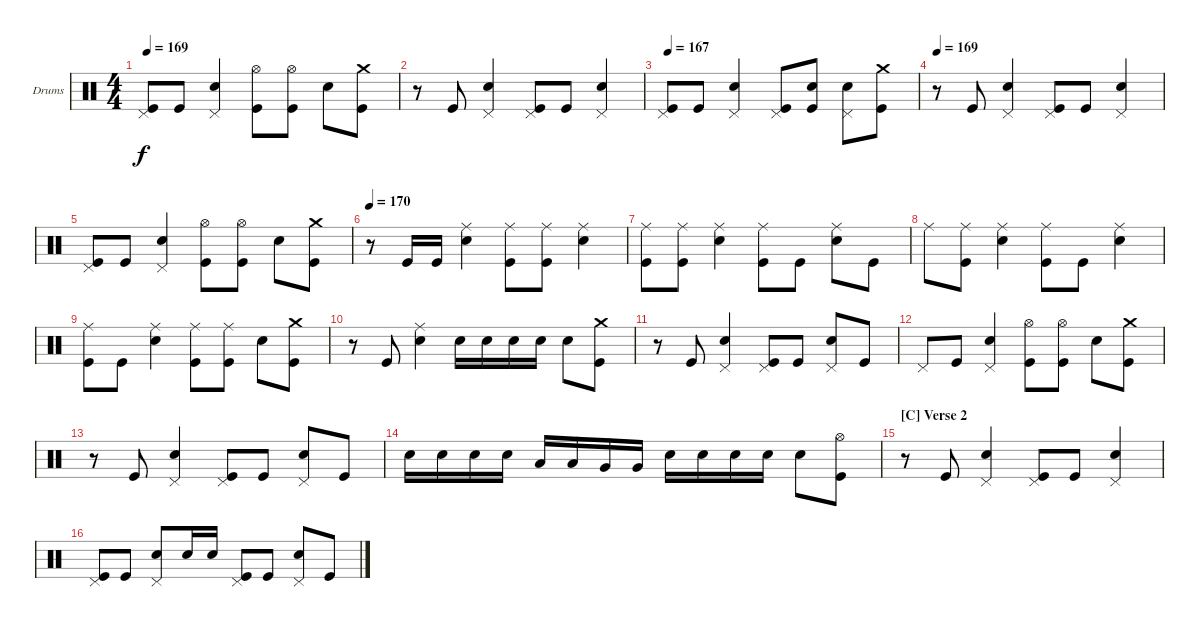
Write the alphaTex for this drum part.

\bracketExtendMode groupsimilarinstruments
\firstSystemTrackNameOrientation horizontal
\otherSystemsTrackNameOrientation horizontal
\track ("Vinny Appice" "Drums") {instrument percussion}
\staff {score}
\articulation defaults
\ts (4 4)
\tempo 169
\clef neutral
\ks c
("Pedal Hi-Hat (hit)" "Kick (hit)").8{dy f} "Kick (hit)".8 ("Pedal Hi-Hat (hit)" "Snare (hit) 2").4 ("Hi-Hat (open)" "Kick (hit)").8 ("Hi-Hat (open)" "Kick (hit)").8 "Snare (hit) 2".8 ("Crash medium (hit)" "Kick (hit)").8 |
r.8 "Kick (hit)".8 ("Pedal Hi-Hat (hit)" "Snare (hit) 2").4 ("Pedal Hi-Hat (hit)" "Kick (hit)").8 "Kick (hit)".8 ("Pedal Hi-Hat (hit)" "Snare (hit) 2").4 |
\tempo (167 0.00625)
("Pedal Hi-Hat (hit)" "Kick (hit)").8 "Kick (hit)".8 ("Pedal Hi-Hat (hit)" "Snare (hit) 2").4 ("Pedal Hi-Hat (hit)" "Kick (hit)").8 ("Snare (hit) 2" "Kick (hit)").8 ("Pedal Hi-Hat (hit)" "Snare (hit) 2").8 ("Crash medium (hit)" "Kick (hit)").8 |
\tempo (169 0.00625)
r.8 "Kick (hit)".8 ("Pedal Hi-Hat (hit)" "Snare (hit) 2").4 ("Pedal Hi-Hat (hit)" "Kick (hit)").8 "Kick (hit)".8 ("Pedal Hi-Hat (hit)" "Snare (hit) 2").4 |
("Pedal Hi-Hat (hit)" "Kick (hit)").8 "Kick (hit)".8 ("Pedal Hi-Hat (hit)" "Snare (hit) 2").4 ("Hi-Hat (open)" "Kick (hit)").8 ("Hi-Hat (open)" "Kick (hit)").8 "Snare (hit) 2".8 ("Crash medium (hit)" "Kick (hit)").8 |
\tempo 170
r.8 "Kick (hit)".16 "Kick (hit)".16 ("Ride (middle)" "Snare (hit) 2").4 ("Ride (middle)" "Kick (hit)").8 ("Ride (middle)" "Kick (hit)").8 ("Ride (middle)" "Snare (hit) 2").4 |
("Ride (middle)" "Kick (hit)").8 ("Ride (middle)" "Kick (hit)").8 ("Ride (middle)" "Snare (hit) 2").4 ("Ride (middle)" "Kick (hit)").8 "Kick (hit)".8 ("Ride (middle)" "Snare (hit) 2").8 "Kick (hit)".8 |
"Ride (middle)".8 ("Ride (middle)" "Kick (hit)").8 ("Ride (middle)" "Snare (hit) 2").4 ("Ride (middle)" "Kick (hit)").8 "Kick (hit)".8 ("Ride (middle)" "Snare (hit) 2").4 |
("Ride (middle)" "Kick (hit)").8 "Kick (hit)".8 ("Ride (middle)" "Snare (hit) 2").4 ("Ride (middle)" "Kick (hit)").8 ("Ride (middle)" "Kick (hit)").8 "Snare (hit) 2".8 ("Crash medium (hit)" "Kick (hit)").8 |
r.8 "Kick (hit)".8 ("Ride (middle)" "Snare (hit) 2").4 "Snare (hit) 2".16 "Snare (hit) 2".16 "Snare (hit) 2".16 "Snare (hit) 2".16 "Snare (hit) 2".8 ("Crash medium (hit)" "Kick (hit)").8 |
r.8 "Kick (hit)".8 ("Pedal Hi-Hat (hit)" "Snare (hit) 2").4 ("Pedal Hi-Hat (hit)" "Kick (hit)").8 "Kick (hit)".8 ("Pedal Hi-Hat (hit)" "Snare (hit) 2").8 "Kick (hit)".8 |
"Pedal Hi-Hat (hit)".8 "Kick (hit)".8 ("Pedal Hi-Hat (hit)" "Snare (hit) 2").4 ("Hi-Hat (open)" "Kick (hit)").8 ("Hi-Hat (open)" "Kick (hit)").8 "Snare (hit) 2".8 ("Crash medium (hit)" "Kick (hit)").8 |
r.8 "Kick (hit)".8 ("Pedal Hi-Hat (hit)" "Snare (hit) 2").4 ("Pedal Hi-Hat (hit)" "Kick (hit)").8 "Kick (hit)".8 ("Pedal Hi-Hat (hit)" "Snare (hit) 2").8 "Kick (hit)".8 |
"Snare (hit) 2".16 "Snare (hit) 2".16 "Snare (hit) 2".16 "Snare (hit) 2".16 "Low Tom (hit)".16 "Low Tom (hit)".16 "Very Low Tom (hit)".16 "Very Low Tom (hit)".16 "Snare (hit) 2".16 "Snare (hit) 2".16 "Snare (hit) 2".16 "Snare (hit) 2".16 "Snare (hit) 2".8 ("Kick (hit)" "Hi-Hat (open)").8 |
\section ("C" "Verse 2")
r.8 "Kick (hit)".8 ("Pedal Hi-Hat (hit)" "Snare (hit) 2").4 ("Pedal Hi-Hat (hit)" "Kick (hit)").8 "Kick (hit)".8 ("Pedal Hi-Hat (hit)" "Snare (hit) 2").4 |
("Pedal Hi-Hat (hit)" "Kick (hit)").8 "Kick (hit)".8 ("Pedal Hi-Hat (hit)" "Snare (hit) 2").8 "Snare (hit) 2".16 "Snare (hit) 2".16 ("Pedal Hi-Hat (hit)" "Kick (hit)").8 "Kick (hit)".8 ("Pedal Hi-Hat (hit)" "Snare (hit) 2").8 "Kick (hit)".8
